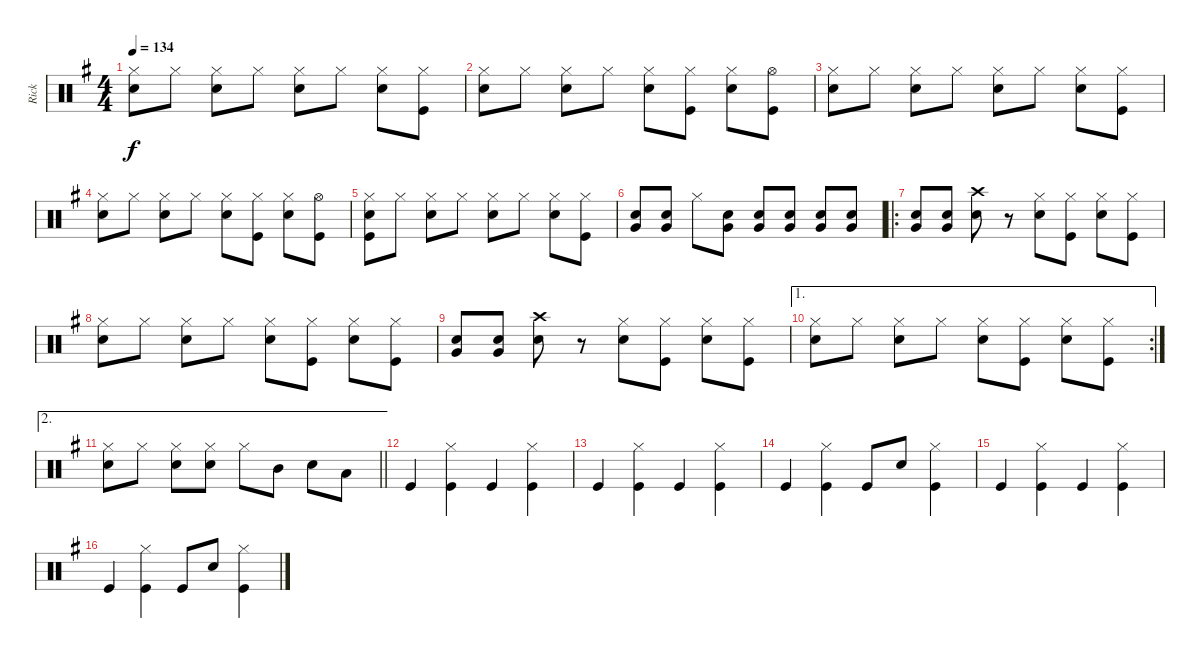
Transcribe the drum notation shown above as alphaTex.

\track ("Rick" "Rick") {instrument percussion}
\staff {score}
\articulation defaults
\ts (4 4)
\tempo 134
\clef neutral
\ks g
("Hi-Hat (closed)" "Snare (hit) 2").8{dy f} "Hi-Hat (closed)".8 ("Hi-Hat (closed)" "Snare (hit) 2").8 "Hi-Hat (closed)".8 ("Hi-Hat (closed)" "Snare (hit) 2").8 "Hi-Hat (closed)".8 ("Hi-Hat (closed)" "Snare (hit) 2").8 ("Hi-Hat (closed)" "Kick (hit)").8 |
("Hi-Hat (closed)" "Snare (hit) 2").8 "Hi-Hat (closed)".8 ("Hi-Hat (closed)" "Snare (hit) 2").8 "Hi-Hat (closed)".8 ("Hi-Hat (closed)" "Snare (hit) 2").8 ("Hi-Hat (closed)" "Kick (hit)").8 ("Hi-Hat (closed)" "Snare (hit) 2").8 ("Hi-Hat (open)" "Kick (hit)").8 |
("Hi-Hat (closed)" "Snare (hit) 2").8 "Hi-Hat (closed)".8 ("Hi-Hat (closed)" "Snare (hit) 2").8 "Hi-Hat (closed)".8 ("Hi-Hat (closed)" "Snare (hit) 2").8 "Hi-Hat (closed)".8 ("Hi-Hat (closed)" "Snare (hit) 2").8 ("Hi-Hat (closed)" "Kick (hit)").8 |
("Hi-Hat (closed)" "Snare (hit) 2").8 "Hi-Hat (closed)".8 ("Hi-Hat (closed)" "Snare (hit) 2").8 "Hi-Hat (closed)".8 ("Hi-Hat (closed)" "Snare (hit) 2").8 ("Hi-Hat (closed)" "Kick (hit)").8 ("Hi-Hat (closed)" "Snare (hit) 2").8 ("Hi-Hat (open)" "Kick (hit)").8 |
("Hi-Hat (closed)" "Snare (hit) 2" "Kick (hit)").8 "Hi-Hat (closed)".8 ("Hi-Hat (closed)" "Snare (hit) 2").8 "Hi-Hat (closed)".8 ("Hi-Hat (closed)" "Snare (hit) 2").8 "Hi-Hat (closed)".8 ("Hi-Hat (closed)" "Snare (hit) 2").8 ("Hi-Hat (closed)" "Kick (hit)").8 |
("Snare (hit) 2" "Very Low Tom (hit)").8 ("Snare (hit) 2" "Very Low Tom (hit)").8 "Hi-Hat (closed)".8 ("Snare (hit) 2" "Very Low Tom (hit)").8 ("Snare (hit) 2" "Very Low Tom (hit)").8 ("Snare (hit) 2" "Very Low Tom (hit)").8 ("Snare (hit) 2" "Very Low Tom (hit)").8 ("Snare (hit) 2" "Very Low Tom (hit)").8 |
\ro
("Snare (hit) 2" "Very Low Tom (hit)").8 ("Snare (hit) 2" "Very Low Tom (hit)").8 ("Crash high (hit)" "Snare (hit) 2").8 r.8 ("Hi-Hat (closed)" "Snare (hit) 2").8 ("Hi-Hat (closed)" "Kick (hit)").8 ("Hi-Hat (closed)" "Snare (hit) 2").8 ("Hi-Hat (closed)" "Kick (hit)").8 |
("Hi-Hat (closed)" "Snare (hit) 2").8 "Hi-Hat (closed)".8 ("Hi-Hat (closed)" "Snare (hit) 2").8 "Hi-Hat (closed)".8 ("Hi-Hat (closed)" "Snare (hit) 2").8 ("Hi-Hat (closed)" "Kick (hit)").8 ("Hi-Hat (closed)" "Snare (hit) 2").8 ("Hi-Hat (closed)" "Kick (hit)").8 |
("Snare (hit) 2" "Very Low Tom (hit)").8 ("Snare (hit) 2" "Very Low Tom (hit)").8 ("Crash high (hit)" "Snare (hit) 2").8 r.8 ("Hi-Hat (closed)" "Snare (hit) 2").8 ("Hi-Hat (closed)" "Kick (hit)").8 ("Hi-Hat (closed)" "Snare (hit) 2").8 ("Hi-Hat (closed)" "Kick (hit)").8 |
\ae 1
\rc 2
("Hi-Hat (closed)" "Snare (hit) 2").8 "Hi-Hat (closed)".8 ("Hi-Hat (closed)" "Snare (hit) 2").8 "Hi-Hat (closed)".8 ("Hi-Hat (closed)" "Snare (hit) 2").8 ("Hi-Hat (closed)" "Kick (hit)").8 ("Hi-Hat (closed)" "Snare (hit) 2").8 ("Hi-Hat (closed)" "Kick (hit)").8 |
\ae 2
\barLineRight lightlight
("Hi-Hat (closed)" "Snare (hit) 2").8 "Hi-Hat (closed)".8 ("Hi-Hat (closed)" "Snare (hit) 2").8 ("Hi-Hat (closed)" "Snare (hit) 2").8 "Hi-Hat (closed)".8 "Mid Tom (hit)".8 "Snare (hit) 2".8 "Low Tom (hit)".8 |
"Kick (hit)".4 ("Hi-Hat (closed)" "Kick (hit)").4 "Kick (hit)".4 ("Hi-Hat (closed)" "Kick (hit)").4 |
"Kick (hit)".4 ("Hi-Hat (closed)" "Kick (hit)").4 "Kick (hit)".4 ("Hi-Hat (closed)" "Kick (hit)").4 |
"Kick (hit)".4 ("Hi-Hat (closed)" "Kick (hit)").4 "Kick (hit)".8 "Snare (hit) 2".8 ("Hi-Hat (closed)" "Kick (hit)").4 |
"Kick (hit)".4 ("Hi-Hat (closed)" "Kick (hit)").4 "Kick (hit)".4 ("Hi-Hat (closed)" "Kick (hit)").4 |
"Kick (hit)".4 ("Hi-Hat (closed)" "Kick (hit)").4 "Kick (hit)".8 "Snare (hit) 2".8 ("Hi-Hat (closed)" "Kick (hit)").4
